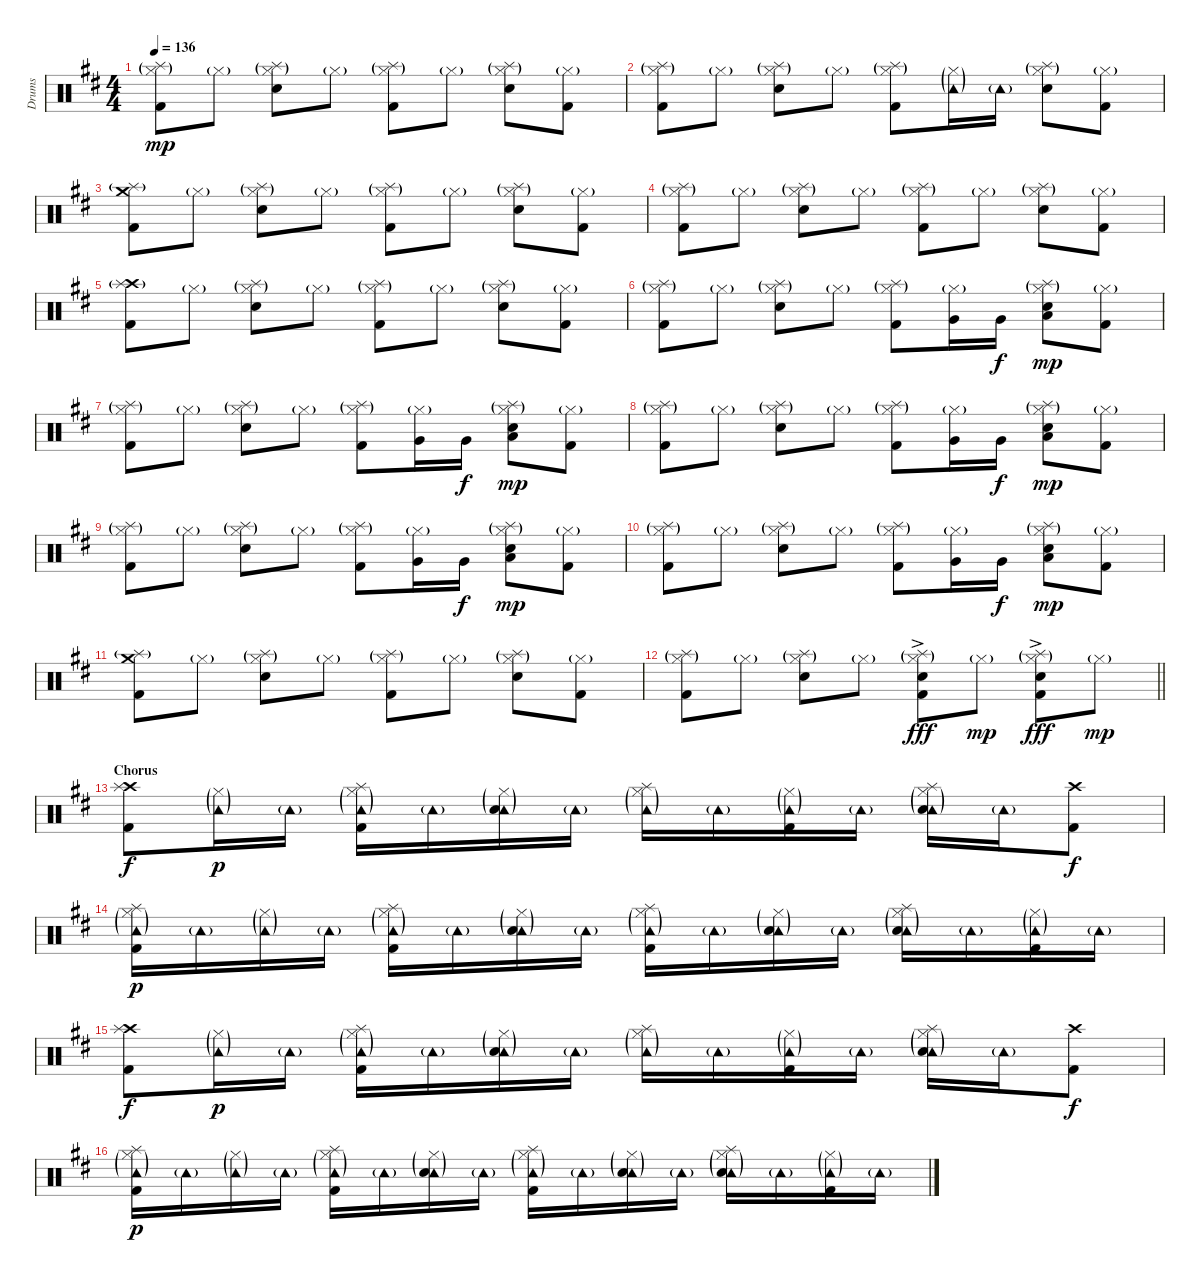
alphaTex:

\track ("Drums" "Drums") {instrument percussion}
\staff {score}
\articulation defaults
\ts (4 4)
\tempo 136
\clef neutral
\ks d
("Hi-Hat (closed)"{g} "Splash (hit)"{g} "Kick (hit) 2").8{dy mp} "Hi-Hat (closed)"{g}.8 ("Hi-Hat (closed)"{g} "Splash (hit)"{g} "Snare (hit) 2").8 "Hi-Hat (closed)"{g}.8 ("Hi-Hat (closed)"{g} "Splash (hit)"{g} "Kick (hit) 2").8 "Hi-Hat (closed)"{g}.8 ("Hi-Hat (closed)"{g} "Splash (hit)"{g} "Snare (hit) 2").8 ("Hi-Hat (closed)"{g} "Kick (hit) 2").8 |
("Hi-Hat (closed)"{g} "Splash (hit)"{g} "Kick (hit) 2").8 "Hi-Hat (closed)"{g}.8 ("Hi-Hat (closed)"{g} "Splash (hit)"{g} "Snare (hit) 2").8 "Hi-Hat (closed)"{g}.8 ("Hi-Hat (closed)"{g} "Splash (hit)"{g} "Kick (hit) 2").8 ("Hi-Hat (closed)"{g} "Tambourine (hit)"{g}).16 "Tambourine (hit)"{g}.16 ("Hi-Hat (closed)"{g} "Splash (hit)"{g} "Snare (hit) 2").8 ("Hi-Hat (closed)"{g} "Kick (hit) 2").8 |
("Crash medium (hit)" "Splash (hit)"{g} "Kick (hit) 2").8 "Hi-Hat (closed)"{g}.8 ("Hi-Hat (closed)"{g} "Splash (hit)"{g} "Snare (hit) 2").8 "Hi-Hat (closed)"{g}.8 ("Hi-Hat (closed)"{g} "Splash (hit)"{g} "Kick (hit) 2").8 "Hi-Hat (closed)"{g}.8 ("Hi-Hat (closed)"{g} "Splash (hit)"{g} "Snare (hit) 2").8 ("Hi-Hat (closed)"{g} "Kick (hit) 2").8 |
("Hi-Hat (closed)"{g} "Splash (hit)"{g} "Kick (hit) 2").8 "Hi-Hat (closed)"{g}.8 ("Hi-Hat (closed)"{g} "Splash (hit)"{g} "Snare (hit) 2").8 "Hi-Hat (closed)"{g}.8 ("Hi-Hat (closed)"{g} "Splash (hit)"{g} "Kick (hit) 2").8 "Hi-Hat (closed)"{g}.8 ("Hi-Hat (closed)"{g} "Splash (hit)"{g} "Snare (hit) 2").8 ("Hi-Hat (closed)"{g} "Kick (hit) 2").8 |
("Crash high (hit)" "Splash (hit)"{g} "Kick (hit) 2").8 "Hi-Hat (closed)"{g}.8 ("Hi-Hat (closed)"{g} "Splash (hit)"{g} "Snare (hit) 2").8 "Hi-Hat (closed)"{g}.8 ("Hi-Hat (closed)"{g} "Splash (hit)"{g} "Kick (hit) 2").8 "Hi-Hat (closed)"{g}.8 ("Hi-Hat (closed)"{g} "Splash (hit)"{g} "Snare (hit) 2").8 ("Hi-Hat (closed)"{g} "Kick (hit) 2").8 |
("Hi-Hat (closed)"{g} "Splash (hit)"{g} "Kick (hit) 2").8 "Hi-Hat (closed)"{g}.8 ("Hi-Hat (closed)"{g} "Splash (hit)"{g} "Snare (hit) 2").8 "Hi-Hat (closed)"{g}.8 ("Hi-Hat (closed)"{g} "Splash (hit)"{g} "Kick (hit) 2").8 ("Hi-Hat (closed)"{g} "Very Low Tom (hit)").16 "Very Low Tom (hit)".16{dy f} ("Hi-Hat (closed)"{g} "Splash (hit)"{g} "Low Floor Tom (hit)" "Snare (hit) 2").8{dy mp} ("Hi-Hat (closed)"{g} "Kick (hit) 2").8 |
("Hi-Hat (closed)"{g} "Splash (hit)"{g} "Kick (hit) 2").8 "Hi-Hat (closed)"{g}.8 ("Hi-Hat (closed)"{g} "Splash (hit)"{g} "Snare (hit) 2").8 "Hi-Hat (closed)"{g}.8 ("Hi-Hat (closed)"{g} "Splash (hit)"{g} "Kick (hit) 2").8 ("Hi-Hat (closed)"{g} "Very Low Tom (hit)").16 "Very Low Tom (hit)".16{dy f} ("Hi-Hat (closed)"{g} "Splash (hit)"{g} "Low Floor Tom (hit)" "Snare (hit) 2").8{dy mp} ("Hi-Hat (closed)"{g} "Kick (hit) 2").8 |
("Hi-Hat (closed)"{g} "Splash (hit)"{g} "Kick (hit) 2").8 "Hi-Hat (closed)"{g}.8 ("Hi-Hat (closed)"{g} "Splash (hit)"{g} "Snare (hit) 2").8 "Hi-Hat (closed)"{g}.8 ("Hi-Hat (closed)"{g} "Splash (hit)"{g} "Kick (hit) 2").8 ("Hi-Hat (closed)"{g} "Very Low Tom (hit)").16 "Very Low Tom (hit)".16{dy f} ("Hi-Hat (closed)"{g} "Splash (hit)"{g} "Low Floor Tom (hit)" "Snare (hit) 2").8{dy mp} ("Hi-Hat (closed)"{g} "Kick (hit) 2").8 |
("Hi-Hat (closed)"{g} "Splash (hit)"{g} "Kick (hit) 2").8 "Hi-Hat (closed)"{g}.8 ("Hi-Hat (closed)"{g} "Splash (hit)"{g} "Snare (hit) 2").8 "Hi-Hat (closed)"{g}.8 ("Hi-Hat (closed)"{g} "Splash (hit)"{g} "Kick (hit) 2").8 ("Hi-Hat (closed)"{g} "Very Low Tom (hit)").16 "Very Low Tom (hit)".16{dy f} ("Hi-Hat (closed)"{g} "Splash (hit)"{g} "Low Floor Tom (hit)" "Snare (hit) 2").8{dy mp} ("Hi-Hat (closed)"{g} "Kick (hit) 2").8 |
("Hi-Hat (closed)"{g} "Splash (hit)"{g} "Kick (hit) 2").8 "Hi-Hat (closed)"{g}.8 ("Hi-Hat (closed)"{g} "Splash (hit)"{g} "Snare (hit) 2").8 "Hi-Hat (closed)"{g}.8 ("Hi-Hat (closed)"{g} "Splash (hit)"{g} "Kick (hit) 2").8 ("Hi-Hat (closed)"{g} "Very Low Tom (hit)").16 "Very Low Tom (hit)".16{dy f} ("Hi-Hat (closed)"{g} "Splash (hit)"{g} "Low Floor Tom (hit)" "Snare (hit) 2").8{dy mp} ("Hi-Hat (closed)"{g} "Kick (hit) 2").8 |
("Crash medium (hit)" "Splash (hit)"{g} "Kick (hit) 2").8 "Hi-Hat (closed)"{g}.8 ("Hi-Hat (closed)"{g} "Splash (hit)"{g} "Snare (hit) 2").8 "Hi-Hat (closed)"{g}.8 ("Hi-Hat (closed)"{g} "Splash (hit)"{g} "Kick (hit) 2").8 "Hi-Hat (closed)"{g}.8 ("Hi-Hat (closed)"{g} "Splash (hit)"{g} "Snare (hit) 2").8 ("Hi-Hat (closed)"{g} "Kick (hit) 2").8 |
\barLineRight lightlight
("Hi-Hat (closed)"{g} "Splash (hit)"{g} "Kick (hit) 2").8 "Hi-Hat (closed)"{g}.8 ("Hi-Hat (closed)"{g} "Splash (hit)"{g} "Snare (hit) 2").8 "Hi-Hat (closed)"{g}.8 ("Hi-Hat (closed)"{g} "Splash (hit)"{g} "Snare (hit) 2"{ac} "Kick (hit) 2").8{dy fff} "Hi-Hat (closed)"{g}.8{dy mp} ("Hi-Hat (closed)"{g} "Splash (hit)"{g} "Snare (hit) 2"{ac} "Kick (hit) 2").8{dy fff} "Hi-Hat (closed)"{g}.8{dy mp} |
\section ("" "Chorus")
("Crash high (hit)" "Splash (hit)" "Kick (hit) 2").8{dy f} ("Hi-Hat (closed)"{g} "Tambourine (hit)"{g}).16{dy p} "Tambourine (hit)"{g}.16 ("Hi-Hat (closed)"{g} "Splash (hit)" "Tambourine (hit)"{g} "Kick (hit) 2").16 "Tambourine (hit)"{g}.16 ("Hi-Hat (closed)"{g} "Tambourine (hit)"{g} "Snare (hit) 2").16 "Tambourine (hit)"{g}.16 ("Hi-Hat (closed)"{g} "Splash (hit)" "Tambourine (hit)"{g}).16 "Tambourine (hit)"{g}.16 ("Hi-Hat (closed)"{g} "Tambourine (hit)"{g} "Kick (hit) 2").16 "Tambourine (hit)"{g}.16 ("Hi-Hat (closed)"{g} "Splash (hit)" "Tambourine (hit)"{g} "Snare (hit) 2").16 "Tambourine (hit)"{g}.16 ("Crash high (hit)" "Kick (hit) 2").8{dy f} |
("Hi-Hat (closed)"{g} "Splash (hit)" "Tambourine (hit)"{g} "Kick (hit) 2").16{dy p} "Tambourine (hit)"{g}.16 ("Hi-Hat (closed)"{g} "Tambourine (hit)"{g}).16 "Tambourine (hit)"{g}.16 ("Hi-Hat (closed)"{g} "Splash (hit)" "Tambourine (hit)"{g} "Kick (hit) 2").16 "Tambourine (hit)"{g}.16 ("Hi-Hat (closed)"{g} "Tambourine (hit)"{g} "Snare (hit) 2").16 "Tambourine (hit)"{g}.16 ("Hi-Hat (closed)"{g} "Splash (hit)" "Tambourine (hit)"{g} "Kick (hit) 2").16 "Tambourine (hit)"{g}.16 ("Hi-Hat (closed)"{g} "Tambourine (hit)"{g} "Snare (hit) 2").16 "Tambourine (hit)"{g}.16 ("Hi-Hat (closed)"{g} "Splash (hit)" "Tambourine (hit)"{g} "Snare (hit) 2").16 "Tambourine (hit)"{g}.16 ("Hi-Hat (closed)"{g} "Tambourine (hit)"{g} "Kick (hit) 2").16 "Tambourine (hit)"{g}.16 |
("Crash high (hit)" "Splash (hit)" "Kick (hit) 2").8{dy f} ("Hi-Hat (closed)"{g} "Tambourine (hit)"{g}).16{dy p} "Tambourine (hit)"{g}.16 ("Hi-Hat (closed)"{g} "Splash (hit)" "Tambourine (hit)"{g} "Kick (hit) 2").16 "Tambourine (hit)"{g}.16 ("Hi-Hat (closed)"{g} "Tambourine (hit)"{g} "Snare (hit) 2").16 "Tambourine (hit)"{g}.16 ("Hi-Hat (closed)"{g} "Splash (hit)" "Tambourine (hit)"{g}).16 "Tambourine (hit)"{g}.16 ("Hi-Hat (closed)"{g} "Tambourine (hit)"{g} "Kick (hit) 2").16 "Tambourine (hit)"{g}.16 ("Hi-Hat (closed)"{g} "Splash (hit)" "Tambourine (hit)"{g} "Snare (hit) 2").16 "Tambourine (hit)"{g}.16 ("Crash high (hit)" "Kick (hit) 2").8{dy f} |
("Hi-Hat (closed)"{g} "Splash (hit)" "Tambourine (hit)"{g} "Kick (hit) 2").16{dy p} "Tambourine (hit)"{g}.16 ("Hi-Hat (closed)"{g} "Tambourine (hit)"{g}).16 "Tambourine (hit)"{g}.16 ("Hi-Hat (closed)"{g} "Splash (hit)" "Tambourine (hit)"{g} "Kick (hit) 2").16 "Tambourine (hit)"{g}.16 ("Hi-Hat (closed)"{g} "Tambourine (hit)"{g} "Snare (hit) 2").16 "Tambourine (hit)"{g}.16 ("Hi-Hat (closed)"{g} "Splash (hit)" "Tambourine (hit)"{g} "Kick (hit) 2").16 "Tambourine (hit)"{g}.16 ("Hi-Hat (closed)"{g} "Tambourine (hit)"{g} "Snare (hit) 2").16 "Tambourine (hit)"{g}.16 ("Hi-Hat (closed)"{g} "Splash (hit)" "Tambourine (hit)"{g} "Snare (hit) 2").16 "Tambourine (hit)"{g}.16 ("Hi-Hat (closed)"{g} "Tambourine (hit)"{g} "Kick (hit) 2").16 "Tambourine (hit)"{g}.16
